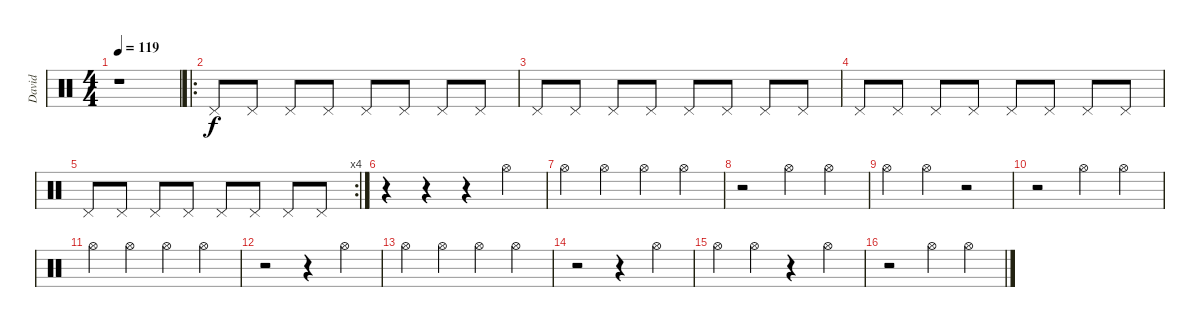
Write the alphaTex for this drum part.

\track ("David" "David") {instrument percussion}
\staff {score}
\articulation defaults
\ts (4 4)
\tempo 119
\clef neutral
\ks c
r.1{dy mp} |
\ro "Pedal Hi-Hat (hit)".8{dy f} "Pedal Hi-Hat (hit)".8 "Pedal Hi-Hat (hit)".8 "Pedal Hi-Hat (hit)".8 "Pedal Hi-Hat (hit)".8 "Pedal Hi-Hat (hit)".8 "Pedal Hi-Hat (hit)".8 "Pedal Hi-Hat (hit)".8
|
"Pedal Hi-Hat (hit)".8 "Pedal Hi-Hat (hit)".8 "Pedal Hi-Hat (hit)".8 "Pedal Hi-Hat (hit)".8 "Pedal Hi-Hat (hit)".8 "Pedal Hi-Hat (hit)".8 "Pedal Hi-Hat (hit)".8 "Pedal Hi-Hat (hit)".8 |
"Pedal Hi-Hat (hit)".8 "Pedal Hi-Hat (hit)".8 "Pedal Hi-Hat (hit)".8 "Pedal Hi-Hat (hit)".8 "Pedal Hi-Hat (hit)".8 "Pedal Hi-Hat (hit)".8 "Pedal Hi-Hat (hit)".8 "Pedal Hi-Hat (hit)".8 |
\rc 4 "Pedal Hi-Hat (hit)".8 "Pedal Hi-Hat (hit)".8 "Pedal Hi-Hat (hit)".8 "Pedal Hi-Hat (hit)".8 "Pedal Hi-Hat (hit)".8 "Pedal Hi-Hat (hit)".8 "Pedal Hi-Hat (hit)".8 "Pedal Hi-Hat (hit)".8
|
r.4 r.4 r.4 "Hi-Hat (open)".4 |
"Hi-Hat (open)".4 "Hi-Hat (open)".4 "Hi-Hat (open)".4 "Hi-Hat (open)".4 |
r.2 "Hi-Hat (open)".4 "Hi-Hat (open)".4 |
"Hi-Hat (open)".4 "Hi-Hat (open)".4 r.2 |
r.2 "Hi-Hat (open)".4 "Hi-Hat (open)".4 |
"Hi-Hat (open)".4 "Hi-Hat (open)".4 "Hi-Hat (open)".4 "Hi-Hat (open)".4 |
r.2 r.4 "Hi-Hat (open)".4 |
"Hi-Hat (open)".4 "Hi-Hat (open)".4 "Hi-Hat (open)".4 "Hi-Hat (open)".4 |
r.2 r.4 "Hi-Hat (open)".4 |
"Hi-Hat (open)".4 "Hi-Hat (open)".4 r.4 "Hi-Hat (open)".4 |
r.2 "Hi-Hat (open)".4 "Hi-Hat (open)".4
